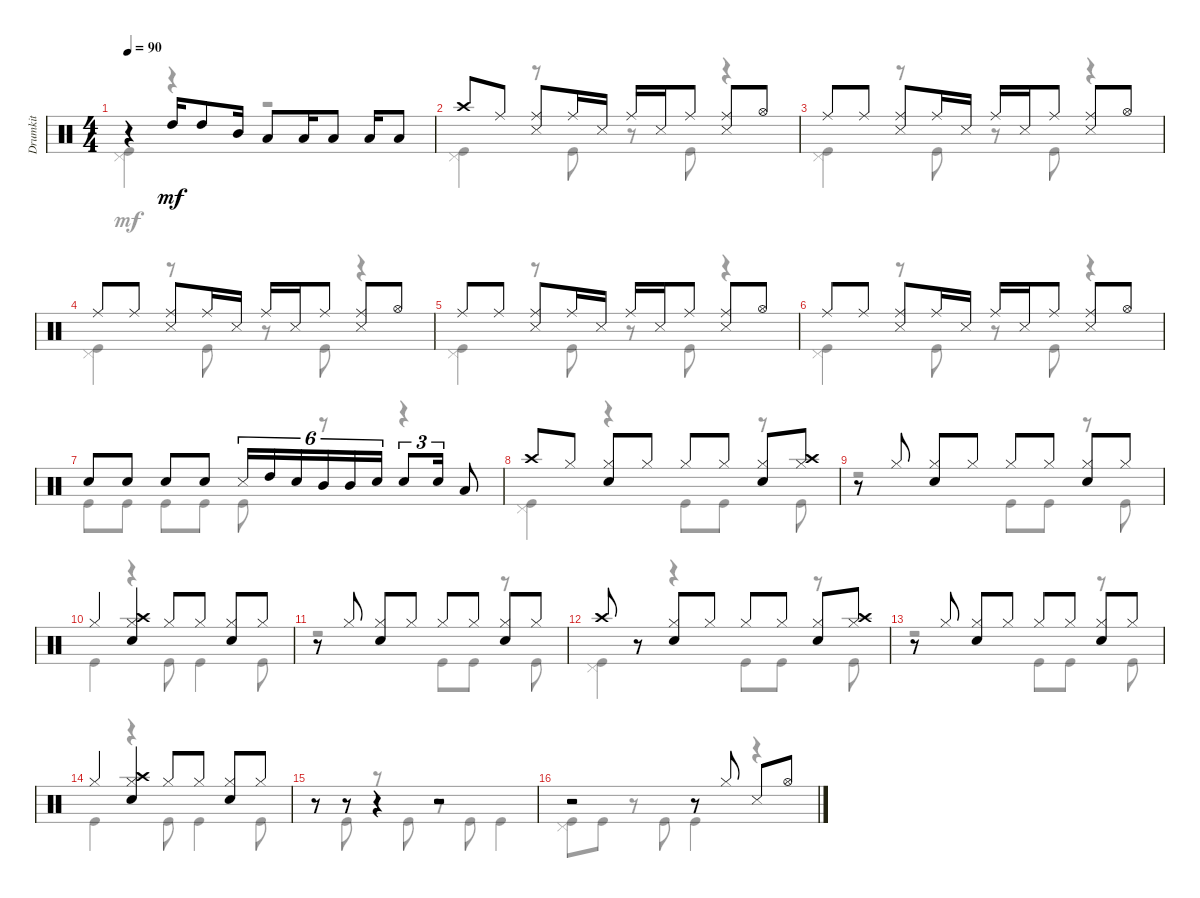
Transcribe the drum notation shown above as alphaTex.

\track ("Drumkit" "Drumkit") {instrument percussion}
\staff {score}
\articulation defaults
\voice
\ts (4 4)
\tempo 90
\clef neutral
\ks c
r.4{dy mf} "High Tom (hit)".16 "High Tom (hit)".8 "Mid Tom (hit)".16 "Low Tom (hit)".8 "Low Tom (hit)".16 "Low Floor Tom (hit)".8 "Low Floor Tom (hit)".16 "Low Floor Tom (hit)".8 |
"Crash high (hit)".8 "Ride (middle)".8 ("Snare (side stick) 3" "Ride (middle)").8 "Ride (middle)".16 "Snare (side stick) 3".16 "Ride (middle)".16 "Snare (side stick) 3".16 "Ride (middle)".8 ("Snare (side stick) 3" "Ride (middle)").8 "Hi-Hat (open)".8 |
"Ride (middle)".8 "Ride (middle)".8 ("Snare (side stick) 3" "Ride (middle)").8 "Ride (middle)".16 "Snare (side stick) 3".16 "Ride (middle)".16 "Snare (side stick) 3".16 "Ride (middle)".8 ("Snare (side stick) 3" "Ride (middle)").8 "Hi-Hat (open)".8 |
"Ride (middle)".8 "Ride (middle)".8 ("Snare (side stick) 3" "Ride (middle)").8 "Ride (middle)".16 "Snare (side stick) 3".16 "Ride (middle)".16 "Snare (side stick) 3".16 "Ride (middle)".8 ("Snare (side stick) 3" "Ride (middle)").8 "Hi-Hat (open)".8 |
"Ride (middle)".8 "Ride (middle)".8 ("Snare (side stick) 3" "Ride (middle)").8 "Ride (middle)".16 "Snare (side stick) 3".16 "Ride (middle)".16 "Snare (side stick) 3".16 "Ride (middle)".8 ("Snare (side stick) 3" "Ride (middle)").8 "Hi-Hat (open)".8 |
"Ride (middle)".8 "Ride (middle)".8 ("Snare (side stick) 3" "Ride (middle)").8 "Ride (middle)".16 "Snare (side stick) 3".16 "Ride (middle)".16 "Snare (side stick) 3".16 "Ride (middle)".8 ("Snare (side stick) 3" "Ride (middle)").8 "Hi-Hat (open)".8 |
"Snare (hit) 2".8 "Snare (hit) 2".8 "Snare (hit) 2".8 "Snare (hit) 2".8 "Snare (side stick) 3".16{tu (6 4)} "High Tom (hit)".16{tu (6 4)} "Snare (hit) 2".16{tu (6 4)} "Mid Tom (hit)".16{tu (6 4)} "Mid Tom (hit)".16{tu (6 4)} "Snare (hit) 2".16{tu (6 4)} "Snare (hit) 2".8{tu (3 2)} "Snare (hit) 2".16{tu (3 2)} "Low Tom (hit)".8 |
"Crash high (hit)".8 "Hi-Hat (closed)".8 ("Snare (hit) 2" "Hi-Hat (closed)").8 "Hi-Hat (closed)".8 "Hi-Hat (closed)".8 "Hi-Hat (closed)".8 ("Snare (hit) 2" "Hi-Hat (closed)").8 ("Hi-Hat (closed)" "Crash high (hit)").8 |
r.8 "Hi-Hat (closed)".8 ("Snare (hit) 2" "Hi-Hat (closed)").8 "Hi-Hat (closed)".8 "Hi-Hat (closed)".8 "Hi-Hat (closed)".8 ("Snare (hit) 2" "Hi-Hat (closed)").8 "Hi-Hat (closed)".8 |
"Hi-Hat (closed)".4 ("Snare (hit) 2" "Hi-Hat (closed)" "Crash high (hit)").4 "Hi-Hat (closed)".8 "Hi-Hat (closed)".8 ("Snare (hit) 2" "Hi-Hat (closed)").8 "Hi-Hat (closed)".8 |
r.8 "Hi-Hat (closed)".8 ("Snare (hit) 2" "Hi-Hat (closed)").8 "Hi-Hat (closed)".8 "Hi-Hat (closed)".8 "Hi-Hat (closed)".8 ("Snare (hit) 2" "Hi-Hat (closed)").8 "Hi-Hat (closed)".8 |
"Crash high (hit)".8 r.8 ("Snare (hit) 2" "Hi-Hat (closed)").8 "Hi-Hat (closed)".8 "Hi-Hat (closed)".8 "Hi-Hat (closed)".8 ("Snare (hit) 2" "Hi-Hat (closed)").8 ("Hi-Hat (closed)" "Crash high (hit)").8 |
r.8 "Hi-Hat (closed)".8 ("Snare (hit) 2" "Hi-Hat (closed)").8 "Hi-Hat (closed)".8 "Hi-Hat (closed)".8 "Hi-Hat (closed)".8 ("Snare (hit) 2" "Hi-Hat (closed)").8 "Hi-Hat (closed)".8 |
"Hi-Hat (closed)".4 ("Snare (hit) 2" "Hi-Hat (closed)" "Crash high (hit)").4 "Hi-Hat (closed)".8 "Hi-Hat (closed)".8 ("Snare (hit) 2" "Hi-Hat (closed)").8 "Hi-Hat (closed)".8 |
r.8 r.8 r.4 r.2 |
r.2 r.8 "Hi-Hat (closed)".8 "Snare (side stick) 3".8 "Hi-Hat (open)".8
\voice
\clef neutral
\ottava regular
\simile none
\ks c
("Pedal Hi-Hat (hit)" "Kick (hit)").4{dy mf} r.4 r.2 |
("Pedal Hi-Hat (hit)" "Kick (hit)").4 r.8 "Kick (hit)".8 r.8 "Kick (hit)".8 r.4 |
("Pedal Hi-Hat (hit)" "Kick (hit)").4 r.8 "Kick (hit)".8 r.8 "Kick (hit)".8 r.4 |
("Pedal Hi-Hat (hit)" "Kick (hit)").4 r.8 "Kick (hit)".8 r.8 "Kick (hit)".8 r.4 |
("Pedal Hi-Hat (hit)" "Kick (hit)").4 r.8 "Kick (hit)".8 r.8 "Kick (hit)".8 r.4 |
("Pedal Hi-Hat (hit)" "Kick (hit)").4 r.8 "Kick (hit)".8 r.8 "Kick (hit)".8 r.4 |
"Kick (hit)".8 "Kick (hit)".8 "Kick (hit)".8 "Kick (hit)".8 "Kick (hit)".8 r.8 r.4 |
("Pedal Hi-Hat (hit)" "Kick (hit)").4 r.4 "Kick (hit)".8 "Kick (hit)".8 r.8 "Kick (hit)".8 |
r.2 "Kick (hit)".8 "Kick (hit)".8 r.8 "Kick (hit)".8 |
"Kick (hit)".4 r.4 "Kick (hit)".8 "Kick (hit)".4 "Kick (hit)".8 |
r.2 "Kick (hit)".8 "Kick (hit)".8 r.8 "Kick (hit)".8 |
("Pedal Hi-Hat (hit)" "Kick (hit)").4 r.4 "Kick (hit)".8 "Kick (hit)".8 r.8 "Kick (hit)".8 |
r.2 "Kick (hit)".8 "Kick (hit)".8 r.8 "Kick (hit)".8 |
"Kick (hit)".4 r.4 "Kick (hit)".8 "Kick (hit)".4 "Kick (hit)".8 |
r.8 "Kick (hit)".8 r.8 "Kick (hit)".8 r.8 "Kick (hit)".8 "Kick (hit)".4 |
("Pedal Hi-Hat (hit)" "Kick (hit)").8 "Kick (hit)".8 r.8 "Kick (hit)".8 "Kick (hit)".4 r.4
